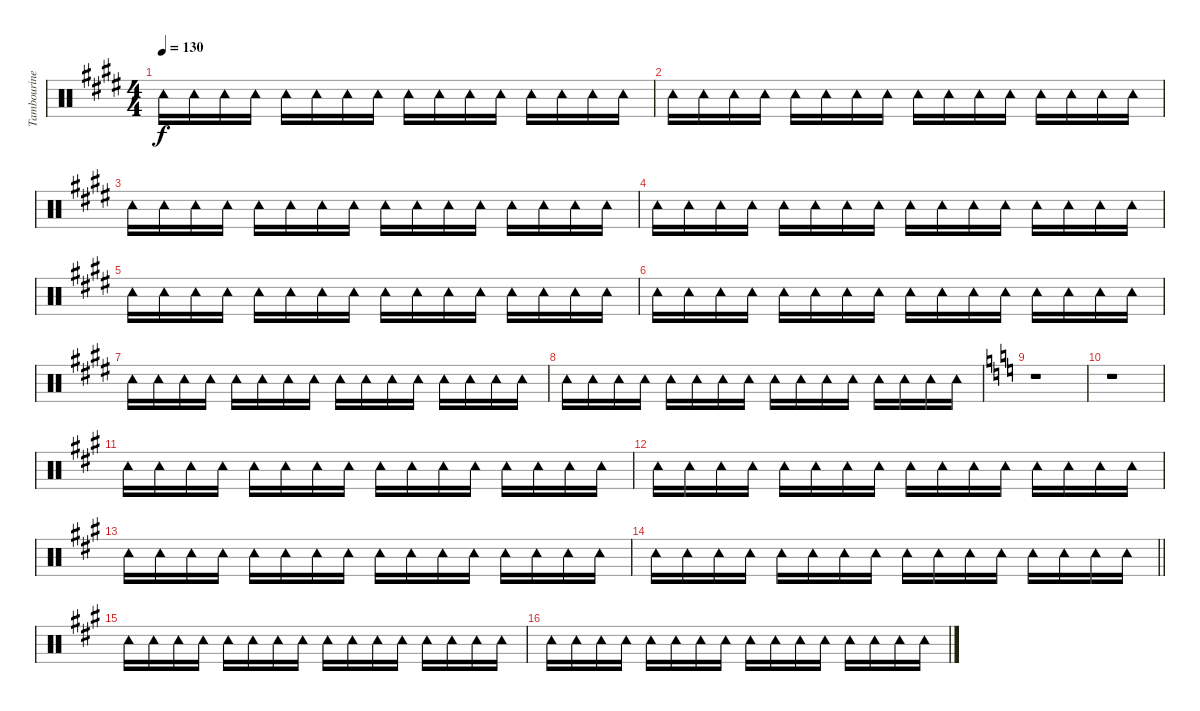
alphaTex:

\track ("Tambourine" "Tambourine") {instrument percussion}
\staff {score}
\articulation defaults
\ts (4 4)
\tempo 130
\clef neutral
\ks e "Tambourine (hit)".16{dy f} "Tambourine (hit)".16 "Tambourine (hit)".16 "Tambourine (hit)".16 "Tambourine (hit)".16 "Tambourine (hit)".16 "Tambourine (hit)".16 "Tambourine (hit)".16 "Tambourine (hit)".16 "Tambourine (hit)".16 "Tambourine (hit)".16 "Tambourine (hit)".16 "Tambourine (hit)".16 "Tambourine (hit)".16 "Tambourine (hit)".16 "Tambourine (hit)".16
|
\ks c#minor "Tambourine (hit)".16 "Tambourine (hit)".16 "Tambourine (hit)".16 "Tambourine (hit)".16 "Tambourine (hit)".16 "Tambourine (hit)".16 "Tambourine (hit)".16 "Tambourine (hit)".16 "Tambourine (hit)".16 "Tambourine (hit)".16 "Tambourine (hit)".16 "Tambourine (hit)".16 "Tambourine (hit)".16 "Tambourine (hit)".16 "Tambourine (hit)".16 "Tambourine (hit)".16
|
"Tambourine (hit)".16 "Tambourine (hit)".16 "Tambourine (hit)".16 "Tambourine (hit)".16 "Tambourine (hit)".16 "Tambourine (hit)".16 "Tambourine (hit)".16 "Tambourine (hit)".16 "Tambourine (hit)".16 "Tambourine (hit)".16 "Tambourine (hit)".16 "Tambourine (hit)".16 "Tambourine (hit)".16 "Tambourine (hit)".16 "Tambourine (hit)".16 "Tambourine (hit)".16 |
"Tambourine (hit)".16 "Tambourine (hit)".16 "Tambourine (hit)".16 "Tambourine (hit)".16 "Tambourine (hit)".16 "Tambourine (hit)".16 "Tambourine (hit)".16 "Tambourine (hit)".16 "Tambourine (hit)".16 "Tambourine (hit)".16 "Tambourine (hit)".16 "Tambourine (hit)".16 "Tambourine (hit)".16 "Tambourine (hit)".16 "Tambourine (hit)".16 "Tambourine (hit)".16 |
\ks e "Tambourine (hit)".16 "Tambourine (hit)".16 "Tambourine (hit)".16 "Tambourine (hit)".16 "Tambourine (hit)".16 "Tambourine (hit)".16 "Tambourine (hit)".16 "Tambourine (hit)".16 "Tambourine (hit)".16 "Tambourine (hit)".16 "Tambourine (hit)".16 "Tambourine (hit)".16 "Tambourine (hit)".16 "Tambourine (hit)".16 "Tambourine (hit)".16 "Tambourine (hit)".16
|
\ks c#minor "Tambourine (hit)".16 "Tambourine (hit)".16 "Tambourine (hit)".16 "Tambourine (hit)".16 "Tambourine (hit)".16 "Tambourine (hit)".16 "Tambourine (hit)".16 "Tambourine (hit)".16 "Tambourine (hit)".16 "Tambourine (hit)".16 "Tambourine (hit)".16 "Tambourine (hit)".16 "Tambourine (hit)".16 "Tambourine (hit)".16 "Tambourine (hit)".16 "Tambourine (hit)".16
|
"Tambourine (hit)".16 "Tambourine (hit)".16 "Tambourine (hit)".16 "Tambourine (hit)".16 "Tambourine (hit)".16 "Tambourine (hit)".16 "Tambourine (hit)".16 "Tambourine (hit)".16 "Tambourine (hit)".16 "Tambourine (hit)".16 "Tambourine (hit)".16 "Tambourine (hit)".16 "Tambourine (hit)".16 "Tambourine (hit)".16 "Tambourine (hit)".16 "Tambourine (hit)".16 |
"Tambourine (hit)".16 "Tambourine (hit)".16 "Tambourine (hit)".16 "Tambourine (hit)".16 "Tambourine (hit)".16 "Tambourine (hit)".16 "Tambourine (hit)".16 "Tambourine (hit)".16 "Tambourine (hit)".16 "Tambourine (hit)".16 "Tambourine (hit)".16 "Tambourine (hit)".16 "Tambourine (hit)".16 "Tambourine (hit)".16 "Tambourine (hit)".16 "Tambourine (hit)".16 |
\ks c
r.1 |
r.1 |
\ks a "Tambourine (hit)".16 "Tambourine (hit)".16 "Tambourine (hit)".16 "Tambourine (hit)".16 "Tambourine (hit)".16 "Tambourine (hit)".16 "Tambourine (hit)".16 "Tambourine (hit)".16 "Tambourine (hit)".16 "Tambourine (hit)".16 "Tambourine (hit)".16 "Tambourine (hit)".16 "Tambourine (hit)".16 "Tambourine (hit)".16 "Tambourine (hit)".16 "Tambourine (hit)".16
|
"Tambourine (hit)".16 "Tambourine (hit)".16 "Tambourine (hit)".16 "Tambourine (hit)".16 "Tambourine (hit)".16 "Tambourine (hit)".16 "Tambourine (hit)".16 "Tambourine (hit)".16 "Tambourine (hit)".16 "Tambourine (hit)".16 "Tambourine (hit)".16 "Tambourine (hit)".16 "Tambourine (hit)".16 "Tambourine (hit)".16 "Tambourine (hit)".16 "Tambourine (hit)".16 |
"Tambourine (hit)".16 "Tambourine (hit)".16 "Tambourine (hit)".16 "Tambourine (hit)".16 "Tambourine (hit)".16 "Tambourine (hit)".16 "Tambourine (hit)".16 "Tambourine (hit)".16 "Tambourine (hit)".16 "Tambourine (hit)".16 "Tambourine (hit)".16 "Tambourine (hit)".16 "Tambourine (hit)".16 "Tambourine (hit)".16 "Tambourine (hit)".16 "Tambourine (hit)".16 |
\barLineRight lightlight "Tambourine (hit)".16 "Tambourine (hit)".16 "Tambourine (hit)".16 "Tambourine (hit)".16 "Tambourine (hit)".16 "Tambourine (hit)".16 "Tambourine (hit)".16 "Tambourine (hit)".16 "Tambourine (hit)".16 "Tambourine (hit)".16 "Tambourine (hit)".16 "Tambourine (hit)".16 "Tambourine (hit)".16 "Tambourine (hit)".16 "Tambourine (hit)".16 "Tambourine (hit)".16
|
"Tambourine (hit)".16 "Tambourine (hit)".16 "Tambourine (hit)".16 "Tambourine (hit)".16 "Tambourine (hit)".16 "Tambourine (hit)".16 "Tambourine (hit)".16 "Tambourine (hit)".16 "Tambourine (hit)".16 "Tambourine (hit)".16 "Tambourine (hit)".16 "Tambourine (hit)".16 "Tambourine (hit)".16 "Tambourine (hit)".16 "Tambourine (hit)".16 "Tambourine (hit)".16 |
"Tambourine (hit)".16 "Tambourine (hit)".16 "Tambourine (hit)".16 "Tambourine (hit)".16 "Tambourine (hit)".16 "Tambourine (hit)".16 "Tambourine (hit)".16 "Tambourine (hit)".16 "Tambourine (hit)".16 "Tambourine (hit)".16 "Tambourine (hit)".16 "Tambourine (hit)".16 "Tambourine (hit)".16 "Tambourine (hit)".16 "Tambourine (hit)".16 "Tambourine (hit)".16
